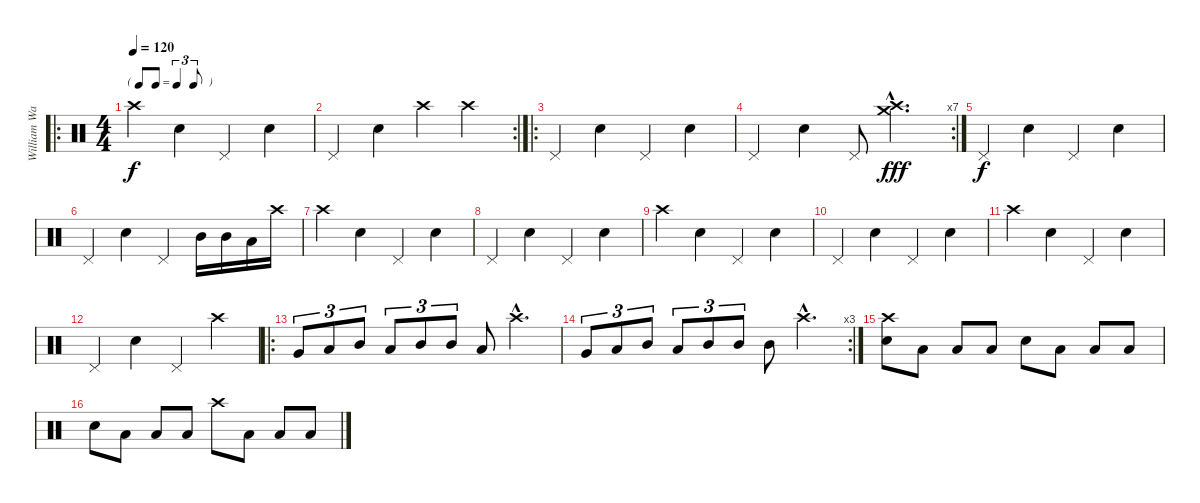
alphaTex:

\track ("William Ward" "William Wa") {instrument percussion}
\staff {score}
\articulation defaults
\ro
\ts (4 4)
\tf triplet8th
\tempo 120
\clef neutral
\ks c "Crash high (hit)".4{dy f} "Snare (hit) 2".4 "Pedal Hi-Hat (hit)".4 "Snare (hit) 2".4
|
\rc 2 "Pedal Hi-Hat (hit)".4 "Snare (hit) 2".4 "Crash high (hit)".4 "Crash high (hit)".4
|
\ro "Pedal Hi-Hat (hit)".4 "Snare (hit) 2".4 "Pedal Hi-Hat (hit)".4 "Snare (hit) 2".4
|
\rc 7 "Pedal Hi-Hat (hit)".4 "Snare (hit) 2".4 "Pedal Hi-Hat (hit)".8
("Crash medium (hit)"{hac} "Crash high (hit)"{hac}).4{d dy fff} |
"Pedal Hi-Hat (hit)".4{dy f} "Snare (hit) 2".4 "Pedal Hi-Hat (hit)".4 "Snare (hit) 2".4 |
"Pedal Hi-Hat (hit)".4 "Snare (hit) 2".4 "Pedal Hi-Hat (hit)".4 "Mid Tom (hit)".16 "Mid Tom (hit)".16 "Low Tom (hit)".16 "Crash high (hit)".16 |
"Crash high (hit)".4 "Snare (hit) 2".4 "Pedal Hi-Hat (hit)".4 "Snare (hit) 2".4 |
"Pedal Hi-Hat (hit)".4 "Snare (hit) 2".4 "Pedal Hi-Hat (hit)".4 "Snare (hit) 2".4 |
"Crash high (hit)".4 "Snare (hit) 2".4 "Pedal Hi-Hat (hit)".4 "Snare (hit) 2".4 |
"Pedal Hi-Hat (hit)".4 "Snare (hit) 2".4 "Pedal Hi-Hat (hit)".4 "Snare (hit) 2".4 |
"Crash high (hit)".4 "Snare (hit) 2".4 "Pedal Hi-Hat (hit)".4 "Snare (hit) 2".4 |
"Pedal Hi-Hat (hit)".4 "Snare (hit) 2".4 "Pedal Hi-Hat (hit)".4 "Crash high (hit)".4 |
\ro "Very Low Tom (hit)".8{tu (3 2)} "Low Tom (hit)".8{tu (3 2)} "Mid Tom (hit)".8{tu (3 2)} "Low Tom (hit)".8{tu (3 2)} "Mid Tom (hit)".8{tu (3 2)} "Mid Tom (hit)".8{tu (3 2)} "Low Tom (hit)".8 "Crash high (hit)"{hac}.4{d}
|
\rc 3 "Very Low Tom (hit)".8{tu (3 2)} "Low Tom (hit)".8{tu (3 2)} "Mid Tom (hit)".8{tu (3 2)} "Low Tom (hit)".8{tu (3 2)} "Mid Tom (hit)".8{tu (3 2)} "Mid Tom (hit)".8{tu (3 2)} "Mid Tom (hit)".8 "Crash high (hit)"{hac}.4{d}
|
("Crash high (hit)" "Snare (hit) 2").8 "Low Tom (hit)".8 "Low Tom (hit)".8 "Low Tom (hit)".8 "Snare (hit) 2".8 "Low Tom (hit)".8 "Low Tom (hit)".8 "Low Tom (hit)".8 |
"Snare (hit) 2".8 "Low Tom (hit)".8 "Low Tom (hit)".8 "Low Tom (hit)".8 "Crash high (hit)".8 "Low Tom (hit)".8 "Low Tom (hit)".8 "Low Tom (hit)".8
